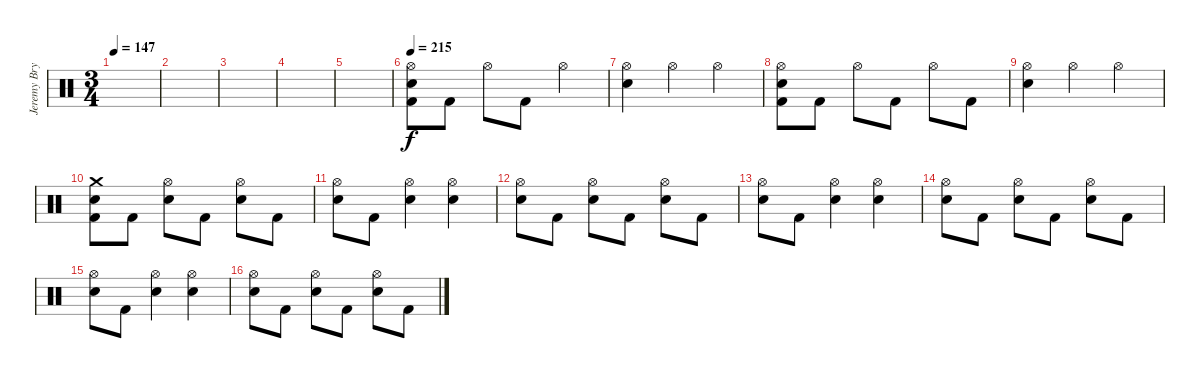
\track ("Jeremy Bryan - Drums" "Jeremy Bry") {instrument percussion}
\staff {score}
\articulation defaults
\ts (3 4)
\tempo 147
\clef neutral
\ks c
|
|
|
|
|
\tempo 215
("Hi-Hat (open)" "Electric Snare (hit)" "Kick (hit) 2").8 "Kick (hit) 2".8 "Hi-Hat (open)".8 "Kick (hit) 2".8 "Hi-Hat (open)".4 |
("Hi-Hat (open)" "Electric Snare (hit)").4 "Hi-Hat (open)".4 "Hi-Hat (open)".4 |
("Hi-Hat (open)" "Electric Snare (hit)" "Kick (hit) 2").8 "Kick (hit) 2".8 "Hi-Hat (open)".8 "Kick (hit) 2".8 "Hi-Hat (open)".8 "Kick (hit) 2".8 |
("Hi-Hat (open)" "Electric Snare (hit)").4 "Hi-Hat (open)".4 "Hi-Hat (open)".4 |
("Crash medium (hit)" "Electric Snare (hit)" "Kick (hit) 2").8 "Kick (hit) 2".8 ("Hi-Hat (open)" "Electric Snare (hit)").8 "Kick (hit) 2".8 ("Hi-Hat (open)" "Electric Snare (hit)").8 "Kick (hit) 2".8 |
("Hi-Hat (open)" "Electric Snare (hit)").8 "Kick (hit) 2".8 ("Hi-Hat (open)" "Electric Snare (hit)").4 ("Hi-Hat (open)" "Electric Snare (hit)").4 |
("Hi-Hat (open)" "Electric Snare (hit)").8 "Kick (hit) 2".8 ("Hi-Hat (open)" "Electric Snare (hit)").8 "Kick (hit) 2".8 ("Hi-Hat (open)" "Electric Snare (hit)").8 "Kick (hit) 2".8 |
("Hi-Hat (open)" "Electric Snare (hit)").8 "Kick (hit) 2".8 ("Hi-Hat (open)" "Electric Snare (hit)").4 ("Hi-Hat (open)" "Electric Snare (hit)").4 |
("Hi-Hat (open)" "Electric Snare (hit)").8 "Kick (hit) 2".8 ("Hi-Hat (open)" "Electric Snare (hit)").8 "Kick (hit) 2".8 ("Hi-Hat (open)" "Electric Snare (hit)").8 "Kick (hit) 2".8 |
("Hi-Hat (open)" "Electric Snare (hit)").8 "Kick (hit) 2".8 ("Hi-Hat (open)" "Electric Snare (hit)").4 ("Hi-Hat (open)" "Electric Snare (hit)").4 |
("Hi-Hat (open)" "Electric Snare (hit)").8 "Kick (hit) 2".8 ("Hi-Hat (open)" "Electric Snare (hit)").8 "Kick (hit) 2".8 ("Hi-Hat (open)" "Electric Snare (hit)").8 "Kick (hit) 2".8
